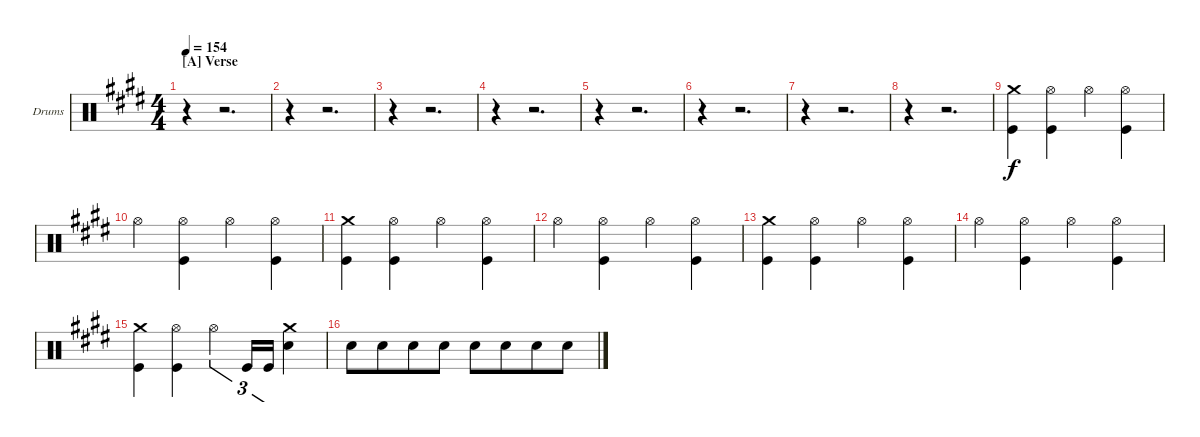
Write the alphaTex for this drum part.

\defaultSystemsLayout 4
\bracketExtendMode groupsimilarinstruments
\firstSystemTrackNameOrientation horizontal
\otherSystemsTrackNameOrientation horizontal
\track ("Jon Larsen" "Drums") {instrument percussion}
\staff {score}
\articulation defaults
\ts (4 4)
\beaming (8 4 4)
\section ("A" "Verse")
\tempo 154
\clef neutral
\scale
0.538462
\ks e
r.4{dy f} r.2{d} |
\scale
0.230769 r.4 r.2{d} |
\scale
0.230769 r.4 r.2{d} |
\scale
0.333333 r.4 r.2{d} |
\scale
0.333333 r.4 r.2{d} |
\scale
0.333333 r.4 r.2{d} |
\scale
0.333333 r.4 r.2{d} |
\scale
0.333333 r.4 r.2{d} |
\scale
0.333333 ("Crash medium (hit)" "Kick (hit)").4 ("Hi-Hat (open)" "Kick (hit)").4 "Hi-Hat (open)".4 ("Hi-Hat (open)" "Kick (hit)").4 |
\scale
0.333333 "Hi-Hat (open)".4 ("Hi-Hat (open)" "Kick (hit)").4 "Hi-Hat (open)".4 ("Hi-Hat (open)" "Kick (hit)").4 |
\scale
0.333333 ("Crash medium (hit)" "Kick (hit)").4 ("Hi-Hat (open)" "Kick (hit)").4 "Hi-Hat (open)".4 ("Hi-Hat (open)" "Kick (hit)").4 |
\scale
0.333333 "Hi-Hat (open)".4 ("Hi-Hat (open)" "Kick (hit)").4 "Hi-Hat (open)".4 ("Hi-Hat (open)" "Kick (hit)").4 |
\scale
0.333333 ("Crash medium (hit)" "Kick (hit)").4 ("Hi-Hat (open)" "Kick (hit)").4 "Hi-Hat (open)".4 ("Hi-Hat (open)" "Kick (hit)").4 |
\scale
0.333333 "Hi-Hat (open)".4 ("Hi-Hat (open)" "Kick (hit)").4 "Hi-Hat (open)".4 ("Hi-Hat (open)" "Kick (hit)").4 |
\scale
0.333333 ("Crash medium (hit)" "Kick (hit)").4 ("Hi-Hat (open)" "Kick (hit)").4 "Hi-Hat (open)".4{tu (3 2)} "Kick (hit)".16{tu (3 2)} "Kick (hit)".16{tu (3 2)} ("Crash medium (hit)" "Snare (hit) 2").4 |
\scale
0.333333 "Snare (hit) 2".8 "Snare (hit) 2".8 "Snare (hit) 2".8 "Snare (hit) 2".8 "Snare (hit) 2".8 "Snare (hit) 2".8 "Snare (hit) 2".8 "Snare (hit) 2".8
